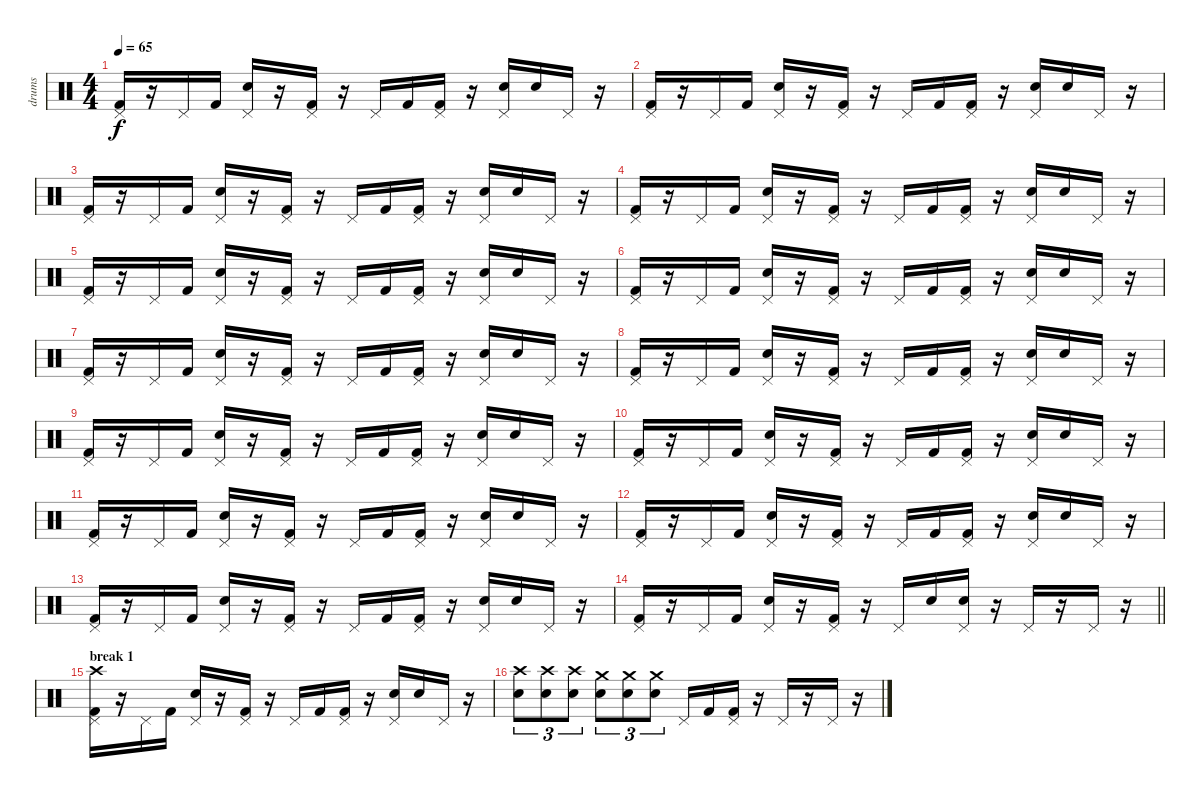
\track ("drums" "drums") {instrument percussion}
\staff {score}
\articulation defaults
\ts (4 4)
\tempo 65
\clef neutral
\ks c
("Kick (hit) 2" "Pedal Hi-Hat (hit)").16{dy f} r.16 "Pedal Hi-Hat (hit)".16 "Kick (hit) 2".16 ("Electric Snare (hit)" "Pedal Hi-Hat (hit)").16 r.16 ("Kick (hit) 2" "Pedal Hi-Hat (hit)").16 r.16 "Pedal Hi-Hat (hit)".16 "Kick (hit) 2".16 ("Kick (hit) 2" "Pedal Hi-Hat (hit)").16 r.16 ("Electric Snare (hit)" "Pedal Hi-Hat (hit)").16 "Electric Snare (hit)".16 "Pedal Hi-Hat (hit)".16 r.16 |
("Kick (hit) 2" "Pedal Hi-Hat (hit)").16 r.16 "Pedal Hi-Hat (hit)".16 "Kick (hit) 2".16 ("Electric Snare (hit)" "Pedal Hi-Hat (hit)").16 r.16 ("Kick (hit) 2" "Pedal Hi-Hat (hit)").16 r.16 "Pedal Hi-Hat (hit)".16 "Kick (hit) 2".16 ("Kick (hit) 2" "Pedal Hi-Hat (hit)").16 r.16 ("Electric Snare (hit)" "Pedal Hi-Hat (hit)").16 "Electric Snare (hit)".16 "Pedal Hi-Hat (hit)".16 r.16 |
("Kick (hit) 2" "Pedal Hi-Hat (hit)").16 r.16 "Pedal Hi-Hat (hit)".16 "Kick (hit) 2".16 ("Electric Snare (hit)" "Pedal Hi-Hat (hit)").16 r.16 ("Kick (hit) 2" "Pedal Hi-Hat (hit)").16 r.16 "Pedal Hi-Hat (hit)".16 "Kick (hit) 2".16 ("Kick (hit) 2" "Pedal Hi-Hat (hit)").16 r.16 ("Electric Snare (hit)" "Pedal Hi-Hat (hit)").16 "Electric Snare (hit)".16 "Pedal Hi-Hat (hit)".16 r.16 |
("Kick (hit) 2" "Pedal Hi-Hat (hit)").16 r.16 "Pedal Hi-Hat (hit)".16 "Kick (hit) 2".16 ("Electric Snare (hit)" "Pedal Hi-Hat (hit)").16 r.16 ("Kick (hit) 2" "Pedal Hi-Hat (hit)").16 r.16 "Pedal Hi-Hat (hit)".16 "Kick (hit) 2".16 ("Kick (hit) 2" "Pedal Hi-Hat (hit)").16 r.16 ("Electric Snare (hit)" "Pedal Hi-Hat (hit)").16 "Electric Snare (hit)".16 "Pedal Hi-Hat (hit)".16 r.16 |
("Kick (hit) 2" "Pedal Hi-Hat (hit)").16 r.16 "Pedal Hi-Hat (hit)".16 "Kick (hit) 2".16 ("Electric Snare (hit)" "Pedal Hi-Hat (hit)").16 r.16 ("Kick (hit) 2" "Pedal Hi-Hat (hit)").16 r.16 "Pedal Hi-Hat (hit)".16 "Kick (hit) 2".16 ("Kick (hit) 2" "Pedal Hi-Hat (hit)").16 r.16 ("Electric Snare (hit)" "Pedal Hi-Hat (hit)").16 "Electric Snare (hit)".16 "Pedal Hi-Hat (hit)".16 r.16 |
("Kick (hit) 2" "Pedal Hi-Hat (hit)").16 r.16 "Pedal Hi-Hat (hit)".16 "Kick (hit) 2".16 ("Electric Snare (hit)" "Pedal Hi-Hat (hit)").16 r.16 ("Kick (hit) 2" "Pedal Hi-Hat (hit)").16 r.16 "Pedal Hi-Hat (hit)".16 "Kick (hit) 2".16 ("Kick (hit) 2" "Pedal Hi-Hat (hit)").16 r.16 ("Electric Snare (hit)" "Pedal Hi-Hat (hit)").16 "Electric Snare (hit)".16 "Pedal Hi-Hat (hit)".16 r.16 |
("Kick (hit) 2" "Pedal Hi-Hat (hit)").16 r.16 "Pedal Hi-Hat (hit)".16 "Kick (hit) 2".16 ("Electric Snare (hit)" "Pedal Hi-Hat (hit)").16 r.16 ("Kick (hit) 2" "Pedal Hi-Hat (hit)").16 r.16 "Pedal Hi-Hat (hit)".16 "Kick (hit) 2".16 ("Kick (hit) 2" "Pedal Hi-Hat (hit)").16 r.16 ("Electric Snare (hit)" "Pedal Hi-Hat (hit)").16 "Electric Snare (hit)".16 "Pedal Hi-Hat (hit)".16 r.16 |
("Kick (hit) 2" "Pedal Hi-Hat (hit)").16 r.16 "Pedal Hi-Hat (hit)".16 "Kick (hit) 2".16 ("Electric Snare (hit)" "Pedal Hi-Hat (hit)").16 r.16 ("Kick (hit) 2" "Pedal Hi-Hat (hit)").16 r.16 "Pedal Hi-Hat (hit)".16 "Kick (hit) 2".16 ("Kick (hit) 2" "Pedal Hi-Hat (hit)").16 r.16 ("Electric Snare (hit)" "Pedal Hi-Hat (hit)").16 "Electric Snare (hit)".16 "Pedal Hi-Hat (hit)".16 r.16 |
("Kick (hit) 2" "Pedal Hi-Hat (hit)").16 r.16 "Pedal Hi-Hat (hit)".16 "Kick (hit) 2".16 ("Electric Snare (hit)" "Pedal Hi-Hat (hit)").16 r.16 ("Kick (hit) 2" "Pedal Hi-Hat (hit)").16 r.16 "Pedal Hi-Hat (hit)".16 "Kick (hit) 2".16 ("Kick (hit) 2" "Pedal Hi-Hat (hit)").16 r.16 ("Electric Snare (hit)" "Pedal Hi-Hat (hit)").16 "Electric Snare (hit)".16 "Pedal Hi-Hat (hit)".16 r.16 |
("Kick (hit) 2" "Pedal Hi-Hat (hit)").16 r.16 "Pedal Hi-Hat (hit)".16 "Kick (hit) 2".16 ("Electric Snare (hit)" "Pedal Hi-Hat (hit)").16 r.16 ("Kick (hit) 2" "Pedal Hi-Hat (hit)").16 r.16 "Pedal Hi-Hat (hit)".16 "Kick (hit) 2".16 ("Kick (hit) 2" "Pedal Hi-Hat (hit)").16 r.16 ("Electric Snare (hit)" "Pedal Hi-Hat (hit)").16 "Electric Snare (hit)".16 "Pedal Hi-Hat (hit)".16 r.16 |
("Kick (hit) 2" "Pedal Hi-Hat (hit)").16 r.16 "Pedal Hi-Hat (hit)".16 "Kick (hit) 2".16 ("Electric Snare (hit)" "Pedal Hi-Hat (hit)").16 r.16 ("Kick (hit) 2" "Pedal Hi-Hat (hit)").16 r.16 "Pedal Hi-Hat (hit)".16 "Kick (hit) 2".16 ("Kick (hit) 2" "Pedal Hi-Hat (hit)").16 r.16 ("Electric Snare (hit)" "Pedal Hi-Hat (hit)").16 "Electric Snare (hit)".16 "Pedal Hi-Hat (hit)".16 r.16 |
("Kick (hit) 2" "Pedal Hi-Hat (hit)").16 r.16 "Pedal Hi-Hat (hit)".16 "Kick (hit) 2".16 ("Electric Snare (hit)" "Pedal Hi-Hat (hit)").16 r.16 ("Kick (hit) 2" "Pedal Hi-Hat (hit)").16 r.16 "Pedal Hi-Hat (hit)".16 "Kick (hit) 2".16 ("Kick (hit) 2" "Pedal Hi-Hat (hit)").16 r.16 ("Electric Snare (hit)" "Pedal Hi-Hat (hit)").16 "Electric Snare (hit)".16 "Pedal Hi-Hat (hit)".16 r.16 |
("Kick (hit) 2" "Pedal Hi-Hat (hit)").16 r.16 "Pedal Hi-Hat (hit)".16 "Kick (hit) 2".16 ("Electric Snare (hit)" "Pedal Hi-Hat (hit)").16 r.16 ("Kick (hit) 2" "Pedal Hi-Hat (hit)").16 r.16 "Pedal Hi-Hat (hit)".16 "Kick (hit) 2".16 ("Kick (hit) 2" "Pedal Hi-Hat (hit)").16 r.16 ("Electric Snare (hit)" "Pedal Hi-Hat (hit)").16 "Electric Snare (hit)".16 "Pedal Hi-Hat (hit)".16 r.16 |
\barLineRight lightlight
("Kick (hit) 2" "Pedal Hi-Hat (hit)").16 r.16 "Pedal Hi-Hat (hit)".16 "Kick (hit) 2".16 ("Electric Snare (hit)" "Pedal Hi-Hat (hit)").16 r.16 ("Kick (hit) 2" "Pedal Hi-Hat (hit)").16 r.16 "Pedal Hi-Hat (hit)".16 "Electric Snare (hit)".16 ("Electric Snare (hit)" "Pedal Hi-Hat (hit)").16 r.16 "Pedal Hi-Hat (hit)".16 r.16 "Pedal Hi-Hat (hit)".16 r.16 |
\section ("" "break 1")
("Kick (hit) 2" "Pedal Hi-Hat (hit)" "Crash high (hit)").16 r.16 "Pedal Hi-Hat (hit)".16 "Kick (hit) 2".16 ("Electric Snare (hit)" "Pedal Hi-Hat (hit)").16 r.16 ("Kick (hit) 2" "Pedal Hi-Hat (hit)").16 r.16 "Pedal Hi-Hat (hit)".16 "Kick (hit) 2".16 ("Kick (hit) 2" "Pedal Hi-Hat (hit)").16 r.16 ("Electric Snare (hit)" "Pedal Hi-Hat (hit)").16 "Electric Snare (hit)".16 "Pedal Hi-Hat (hit)".16 r.16 |
("Electric Snare (hit)" "Crash high (hit)").8{tu (3 2)} ("Electric Snare (hit)" "Crash high (hit)").8{tu (3 2)} ("Electric Snare (hit)" "Crash high (hit)").8{tu (3 2)} ("Electric Snare (hit)" "Crash medium (hit)").8{tu (3 2)} ("Electric Snare (hit)" "Crash medium (hit)").8{tu (3 2)} ("Electric Snare (hit)" "Crash medium (hit)").8{tu (3 2)} "Pedal Hi-Hat (hit)".16 "Kick (hit) 2".16 ("Kick (hit) 2" "Pedal Hi-Hat (hit)").16 r.16 "Pedal Hi-Hat (hit)".16 r.16 "Pedal Hi-Hat (hit)".16 r.16
